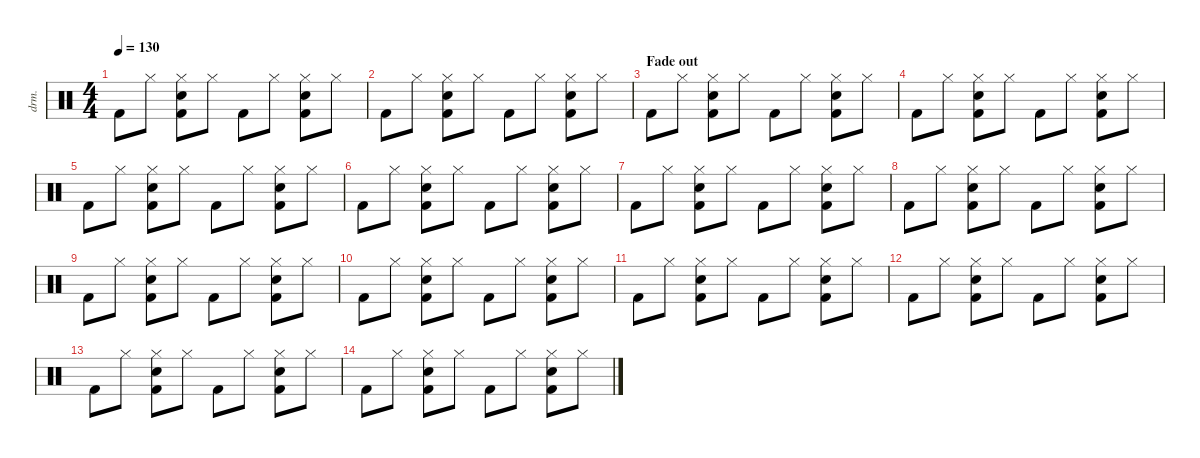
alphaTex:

\defaultSystemsLayout 4
\hideDynamics
\bracketExtendMode nobrackets
\otherSystemsTrackNameOrientation horizontal
\track ("Percussion" "drm.") {defaultSystemsLayout 4 instrument percussion}
\staff {score}
\articulation defaults
\ts (4 4)
\tempo 130
\clef neutral
\ks c "Kick (hit) 2".8{dy f beam Down} "Hi-Hat (closed)".8{beam Down}
("Hi-Hat (closed)" "Snare (hit) 2" "Kick (hit) 2").8{beam Down} "Hi-Hat (closed)".8{beam Down} "Kick (hit) 2".8{beam Down} "Hi-Hat (closed)".8{beam Down} ("Hi-Hat (closed)" "Snare (hit) 2" "Kick (hit) 2").8{beam Down} "Hi-Hat (closed)".8{beam Down} |
"Kick (hit) 2".8{beam Down} "Hi-Hat (closed)".8{beam Down} ("Hi-Hat (closed)" "Snare (hit) 2" "Kick (hit) 2").8{beam Down} "Hi-Hat (closed)".8{beam Down} "Kick (hit) 2".8{beam Down} "Hi-Hat (closed)".8{beam Down} ("Hi-Hat (closed)" "Snare (hit) 2" "Kick (hit) 2").8{beam Down} "Hi-Hat (closed)".8{beam Down} |
\section ("" "Fade out")
"Kick (hit) 2".8{beam Down} "Hi-Hat (closed)".8{beam Down} ("Hi-Hat (closed)" "Snare (hit) 2" "Kick (hit) 2").8{beam Down} "Hi-Hat (closed)".8{beam Down} "Kick (hit) 2".8{beam Down} "Hi-Hat (closed)".8{beam Down} ("Hi-Hat (closed)" "Snare (hit) 2" "Kick (hit) 2").8{beam Down} "Hi-Hat (closed)".8{beam Down} |
"Kick (hit) 2".8{beam Down} "Hi-Hat (closed)".8{beam Down} ("Hi-Hat (closed)" "Snare (hit) 2" "Kick (hit) 2").8{beam Down} "Hi-Hat (closed)".8{beam Down} "Kick (hit) 2".8{beam Down} "Hi-Hat (closed)".8{beam Down} ("Hi-Hat (closed)" "Snare (hit) 2" "Kick (hit) 2").8{beam Down} "Hi-Hat (closed)".8{beam Down} |
"Kick (hit) 2".8{beam Down} "Hi-Hat (closed)".8{beam Down} ("Hi-Hat (closed)" "Snare (hit) 2" "Kick (hit) 2").8{beam Down} "Hi-Hat (closed)".8{beam Down} "Kick (hit) 2".8{beam Down} "Hi-Hat (closed)".8{beam Down} ("Hi-Hat (closed)" "Snare (hit) 2" "Kick (hit) 2").8{beam Down} "Hi-Hat (closed)".8{beam Down} |
"Kick (hit) 2".8{beam Down} "Hi-Hat (closed)".8{beam Down} ("Hi-Hat (closed)" "Snare (hit) 2" "Kick (hit) 2").8{beam Down} "Hi-Hat (closed)".8{beam Down} "Kick (hit) 2".8{beam Down} "Hi-Hat (closed)".8{beam Down} ("Hi-Hat (closed)" "Snare (hit) 2" "Kick (hit) 2").8{beam Down} "Hi-Hat (closed)".8{beam Down} |
"Kick (hit) 2".8{beam Down} "Hi-Hat (closed)".8{beam Down} ("Hi-Hat (closed)" "Snare (hit) 2" "Kick (hit) 2").8{beam Down} "Hi-Hat (closed)".8{beam Down} "Kick (hit) 2".8{beam Down} "Hi-Hat (closed)".8{beam Down} ("Hi-Hat (closed)" "Snare (hit) 2" "Kick (hit) 2").8{beam Down} "Hi-Hat (closed)".8{beam Down} |
"Kick (hit) 2".8{beam Down} "Hi-Hat (closed)".8{beam Down} ("Hi-Hat (closed)" "Snare (hit) 2" "Kick (hit) 2").8{beam Down} "Hi-Hat (closed)".8{beam Down} "Kick (hit) 2".8{beam Down} "Hi-Hat (closed)".8{beam Down} ("Hi-Hat (closed)" "Snare (hit) 2" "Kick (hit) 2").8{beam Down} "Hi-Hat (closed)".8{beam Down} |
"Kick (hit) 2".8{beam Down} "Hi-Hat (closed)".8{beam Down} ("Hi-Hat (closed)" "Snare (hit) 2" "Kick (hit) 2").8{beam Down} "Hi-Hat (closed)".8{beam Down} "Kick (hit) 2".8{beam Down} "Hi-Hat (closed)".8{beam Down} ("Hi-Hat (closed)" "Snare (hit) 2" "Kick (hit) 2").8{beam Down} "Hi-Hat (closed)".8{beam Down} |
"Kick (hit) 2".8{beam Down} "Hi-Hat (closed)".8{beam Down} ("Hi-Hat (closed)" "Snare (hit) 2" "Kick (hit) 2").8{beam Down} "Hi-Hat (closed)".8{beam Down} "Kick (hit) 2".8{beam Down} "Hi-Hat (closed)".8{beam Down} ("Hi-Hat (closed)" "Snare (hit) 2" "Kick (hit) 2").8{beam Down} "Hi-Hat (closed)".8{beam Down} |
"Kick (hit) 2".8{beam Down} "Hi-Hat (closed)".8{beam Down} ("Hi-Hat (closed)" "Snare (hit) 2" "Kick (hit) 2").8{beam Down} "Hi-Hat (closed)".8{beam Down} "Kick (hit) 2".8{beam Down} "Hi-Hat (closed)".8{beam Down} ("Hi-Hat (closed)" "Snare (hit) 2" "Kick (hit) 2").8{beam Down} "Hi-Hat (closed)".8{beam Down} |
"Kick (hit) 2".8{beam Down} "Hi-Hat (closed)".8{beam Down} ("Hi-Hat (closed)" "Snare (hit) 2" "Kick (hit) 2").8{beam Down} "Hi-Hat (closed)".8{beam Down} "Kick (hit) 2".8{beam Down} "Hi-Hat (closed)".8{beam Down} ("Hi-Hat (closed)" "Snare (hit) 2" "Kick (hit) 2").8{beam Down} "Hi-Hat (closed)".8{beam Down} |
"Kick (hit) 2".8{beam Down} "Hi-Hat (closed)".8{beam Down} ("Hi-Hat (closed)" "Snare (hit) 2" "Kick (hit) 2").8{beam Down} "Hi-Hat (closed)".8{beam Down} "Kick (hit) 2".8{beam Down} "Hi-Hat (closed)".8{beam Down} ("Hi-Hat (closed)" "Snare (hit) 2" "Kick (hit) 2").8{beam Down} "Hi-Hat (closed)".8{beam Down} |
"Kick (hit) 2".8{beam Down} "Hi-Hat (closed)".8{beam Down} ("Hi-Hat (closed)" "Snare (hit) 2" "Kick (hit) 2").8{beam Down} "Hi-Hat (closed)".8{beam Down} "Kick (hit) 2".8{beam Down} "Hi-Hat (closed)".8{beam Down} ("Hi-Hat (closed)" "Snare (hit) 2" "Kick (hit) 2").8{beam Down} "Hi-Hat (closed)".8{beam Down}
